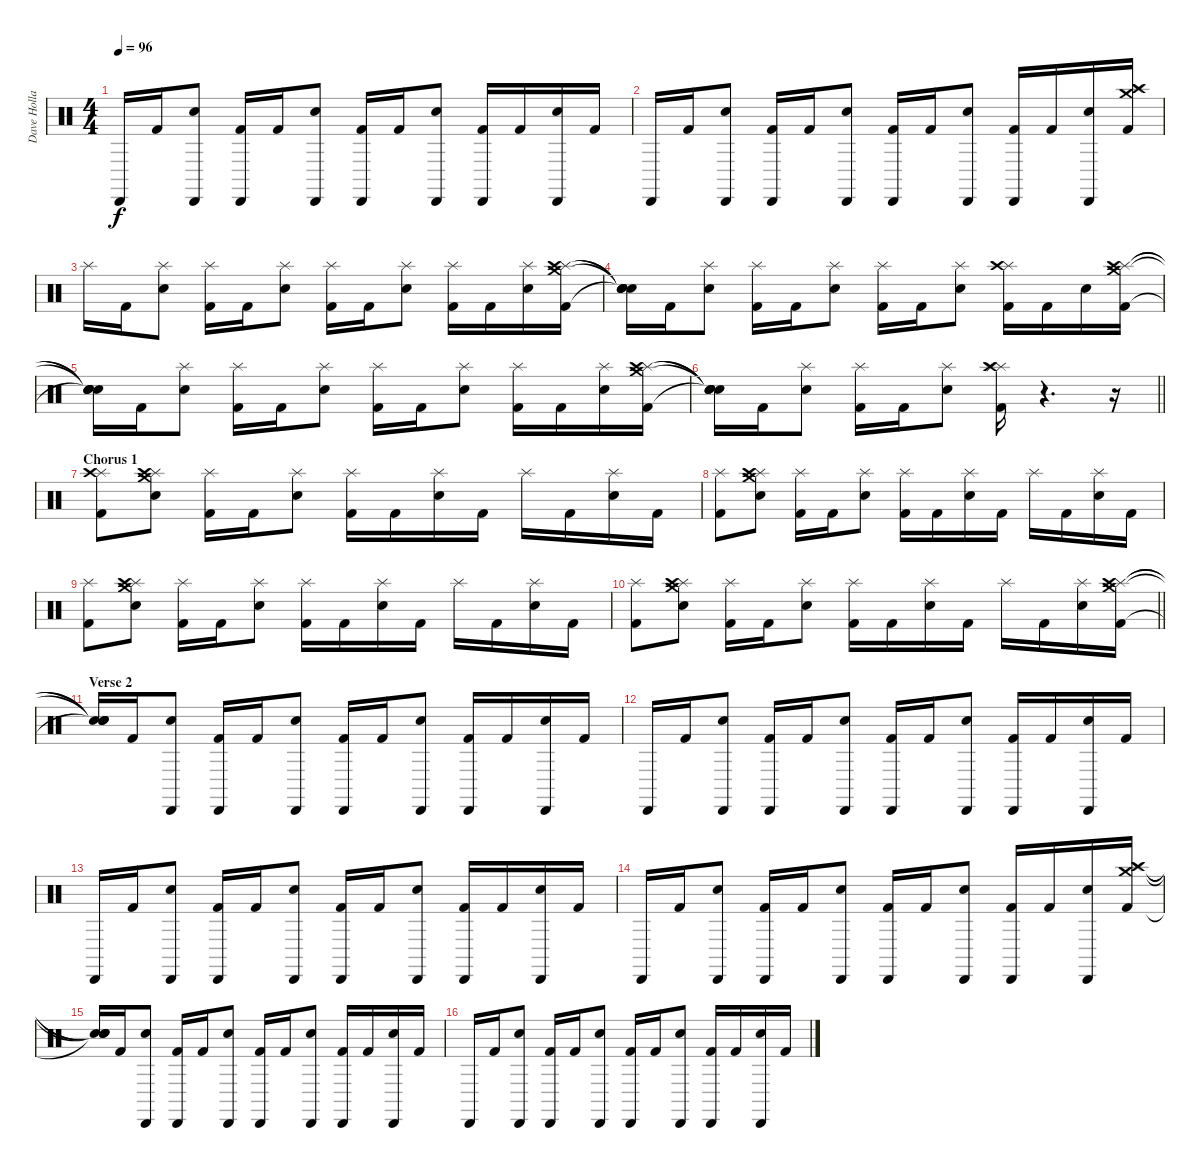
\track ("Dave Holland" "Dave Holla") {instrument percussion}
\staff {score}
\articulation defaults
\ts (4 4)
\tempo 96
\clef neutral
\ks c "Cabasa (hit)".16{dy f} "Kick (hit) 2".16
("Cabasa (hit)" "Snare (hit) 2").8 ("Cabasa (hit)" "Kick (hit) 2").16 "Kick (hit) 2".16 ("Cabasa (hit)" "Snare (hit) 2").8 ("Cabasa (hit)" "Kick (hit) 2").16 "Kick (hit) 2".16 ("Cabasa (hit)" "Snare (hit) 2").8 ("Cabasa (hit)" "Kick (hit) 2").16 "Kick (hit) 2".16 ("Cabasa (hit)" "Snare (hit) 2").16 "Kick (hit) 2".16 |
"Cabasa (hit)".16 "Kick (hit) 2".16 ("Cabasa (hit)" "Snare (hit) 2").8 ("Cabasa (hit)" "Kick (hit) 2").16 "Kick (hit) 2".16 ("Cabasa (hit)" "Snare (hit) 2").8 ("Cabasa (hit)" "Kick (hit) 2").16 "Kick (hit) 2".16 ("Cabasa (hit)" "Snare (hit) 2").8 ("Cabasa (hit)" "Kick (hit) 2").16 "Kick (hit) 2".16 ("Cabasa (hit)" "Snare (hit) 2").16 ("Crash medium (hit)" "Splash (hit)" "Crash high (hit)" "Kick (hit) 2").16 |
"Splash (hit)".16 "Kick (hit) 2".16 ("Splash (hit)" "Snare (hit) 2").8 ("Splash (hit)" "Kick (hit) 2").16 "Kick (hit) 2".16 ("Splash (hit)" "Snare (hit) 2").8 ("Splash (hit)" "Kick (hit) 2").16 "Kick (hit) 2".16 ("Splash (hit)" "Snare (hit) 2").8 ("Splash (hit)" "Kick (hit) 2").16 "Kick (hit) 2".16 ("Splash (hit)" "Snare (hit) 2").16 ("Crash medium (hit)" "Splash (hit)" "Crash high (hit)" "Kick (hit) 2").16 |
("Snare (hit)"{t} "Snare (hit)"{t} "Snare (hit)"{t} "Snare (hit)"{t}).16 "Kick (hit) 2".16 ("Splash (hit)" "Snare (hit) 2").8 ("Splash (hit)" "Kick (hit) 2").16 "Kick (hit) 2".16 ("Splash (hit)" "Snare (hit) 2").8 ("Splash (hit)" "Kick (hit) 2").16 "Kick (hit) 2".16 ("Splash (hit)" "Snare (hit) 2").8 ("Splash (hit)" "Crash high (hit)" "Kick (hit) 2").16 "Kick (hit) 2".16 "Snare (hit) 2".16 ("Crash medium (hit)" "Splash (hit)" "Crash high (hit)" "Kick (hit) 2").16 |
("Snare (hit)"{t} "Snare (hit)"{t} "Snare (hit)"{t} "Snare (hit)"{t}).16 "Kick (hit) 2".16 ("Splash (hit)" "Snare (hit) 2").8 ("Splash (hit)" "Kick (hit) 2").16 "Kick (hit) 2".16 ("Splash (hit)" "Snare (hit) 2").8 ("Splash (hit)" "Kick (hit) 2").16 "Kick (hit) 2".16 ("Splash (hit)" "Snare (hit) 2").8 ("Splash (hit)" "Kick (hit) 2").16 "Kick (hit) 2".16 ("Splash (hit)" "Snare (hit) 2").16 ("Crash medium (hit)" "Splash (hit)" "Crash high (hit)" "Kick (hit) 2").16 |
\barLineRight lightlight
("Snare (hit)"{t} "Snare (hit)"{t} "Snare (hit)"{t} "Snare (hit)"{t}).16 "Kick (hit) 2".16 ("Splash (hit)" "Snare (hit) 2").8 ("Splash (hit)" "Kick (hit) 2").16 "Kick (hit) 2".16 ("Splash (hit)" "Snare (hit) 2").8 ("Splash (hit)" "Splash (hit)" "Crash high (hit)" "Kick (hit) 2").16 r.4{d} r.16 |
\section ("" "Chorus 1")
("Splash (hit)" "Crash high (hit)" "Kick (hit) 2").8 ("Crash medium (hit)" "Splash (hit)" "Crash high (hit)" "Snare (hit) 2").8 ("Splash (hit)" "Kick (hit) 2").16 "Kick (hit) 2".16 ("Splash (hit)" "Snare (hit) 2").8 ("Splash (hit)" "Kick (hit) 2").16 "Kick (hit) 2".16 ("Splash (hit)" "Snare (hit) 2").16 "Kick (hit) 2".16 "Splash (hit)".16 "Kick (hit) 2".16 ("Splash (hit)" "Snare (hit) 2").16 "Kick (hit) 2".16 |
("Splash (hit)" "Kick (hit) 2").8 ("Crash medium (hit)" "Splash (hit)" "Crash high (hit)" "Snare (hit) 2").8 ("Splash (hit)" "Kick (hit) 2").16 "Kick (hit) 2".16 ("Splash (hit)" "Snare (hit) 2").8 ("Splash (hit)" "Kick (hit) 2").16 "Kick (hit) 2".16 ("Splash (hit)" "Snare (hit) 2").16 "Kick (hit) 2".16 "Splash (hit)".16 "Kick (hit) 2".16 ("Splash (hit)" "Snare (hit) 2").16 "Kick (hit) 2".16 |
("Splash (hit)" "Kick (hit) 2").8 ("Crash medium (hit)" "Splash (hit)" "Crash high (hit)" "Snare (hit) 2").8 ("Splash (hit)" "Kick (hit) 2").16 "Kick (hit) 2".16 ("Splash (hit)" "Snare (hit) 2").8 ("Splash (hit)" "Kick (hit) 2").16 "Kick (hit) 2".16 ("Splash (hit)" "Snare (hit) 2").16 "Kick (hit) 2".16 "Splash (hit)".16 "Kick (hit) 2".16 ("Splash (hit)" "Snare (hit) 2").16 "Kick (hit) 2".16 |
\barLineRight lightlight
("Splash (hit)" "Kick (hit) 2").8 ("Crash medium (hit)" "Splash (hit)" "Crash high (hit)" "Snare (hit) 2").8 ("Splash (hit)" "Kick (hit) 2").16 "Kick (hit) 2".16 ("Splash (hit)" "Snare (hit) 2").8 ("Splash (hit)" "Kick (hit) 2").16 "Kick (hit) 2".16 ("Splash (hit)" "Snare (hit) 2").16 "Kick (hit) 2".16 "Splash (hit)".16 "Kick (hit) 2".16 ("Splash (hit)" "Snare (hit) 2").16 ("Crash medium (hit)" "Splash (hit)" "Crash high (hit)" "Kick (hit) 2").16 |
\section ("" "Verse 2")
("Snare (hit)"{t} "Snare (hit)"{t} "Snare (hit)"{t} "Snare (hit)"{t}).16 "Kick (hit) 2".16 ("Cabasa (hit)" "Snare (hit) 2").8 ("Cabasa (hit)" "Kick (hit) 2").16 "Kick (hit) 2".16 ("Cabasa (hit)" "Snare (hit) 2").8 ("Cabasa (hit)" "Kick (hit) 2").16 "Kick (hit) 2".16 ("Cabasa (hit)" "Snare (hit) 2").8 ("Cabasa (hit)" "Kick (hit) 2").16 "Kick (hit) 2".16 ("Cabasa (hit)" "Snare (hit) 2").16 "Kick (hit) 2".16 |
"Cabasa (hit)".16 "Kick (hit) 2".16 ("Cabasa (hit)" "Snare (hit) 2").8 ("Cabasa (hit)" "Kick (hit) 2").16 "Kick (hit) 2".16 ("Cabasa (hit)" "Snare (hit) 2").8 ("Cabasa (hit)" "Kick (hit) 2").16 "Kick (hit) 2".16 ("Cabasa (hit)" "Snare (hit) 2").8 ("Cabasa (hit)" "Kick (hit) 2").16 "Kick (hit) 2".16 ("Cabasa (hit)" "Snare (hit) 2").16 "Kick (hit) 2".16 |
"Cabasa (hit)".16 "Kick (hit) 2".16 ("Cabasa (hit)" "Snare (hit) 2").8 ("Cabasa (hit)" "Kick (hit) 2").16 "Kick (hit) 2".16 ("Cabasa (hit)" "Snare (hit) 2").8 ("Cabasa (hit)" "Kick (hit) 2").16 "Kick (hit) 2".16 ("Cabasa (hit)" "Snare (hit) 2").8 ("Cabasa (hit)" "Kick (hit) 2").16 "Kick (hit) 2".16 ("Cabasa (hit)" "Snare (hit) 2").16 "Kick (hit) 2".16 |
"Cabasa (hit)".16 "Kick (hit) 2".16 ("Cabasa (hit)" "Snare (hit) 2").8 ("Cabasa (hit)" "Kick (hit) 2").16 "Kick (hit) 2".16 ("Cabasa (hit)" "Snare (hit) 2").8 ("Cabasa (hit)" "Kick (hit) 2").16 "Kick (hit) 2".16 ("Cabasa (hit)" "Snare (hit) 2").8 ("Cabasa (hit)" "Kick (hit) 2").16 "Kick (hit) 2".16 ("Cabasa (hit)" "Snare (hit) 2").16 ("Crash medium (hit)" "Splash (hit)" "Crash high (hit)" "Kick (hit) 2").16 |
("Snare (hit)"{t} "Snare (hit)"{t} "Snare (hit)"{t} "Snare (hit)"{t}).16 "Kick (hit) 2".16 ("Cabasa (hit)" "Snare (hit) 2").8 ("Cabasa (hit)" "Kick (hit) 2").16 "Kick (hit) 2".16 ("Cabasa (hit)" "Snare (hit) 2").8 ("Cabasa (hit)" "Kick (hit) 2").16 "Kick (hit) 2".16 ("Cabasa (hit)" "Snare (hit) 2").8 ("Cabasa (hit)" "Kick (hit) 2").16 "Kick (hit) 2".16 ("Cabasa (hit)" "Snare (hit) 2").16 "Kick (hit) 2".16 |
"Cabasa (hit)".16 "Kick (hit) 2".16 ("Cabasa (hit)" "Snare (hit) 2").8 ("Cabasa (hit)" "Kick (hit) 2").16 "Kick (hit) 2".16 ("Cabasa (hit)" "Snare (hit) 2").8 ("Cabasa (hit)" "Kick (hit) 2").16 "Kick (hit) 2".16 ("Cabasa (hit)" "Snare (hit) 2").8 ("Cabasa (hit)" "Kick (hit) 2").16 "Kick (hit) 2".16 ("Cabasa (hit)" "Snare (hit) 2").16 "Kick (hit) 2".16
